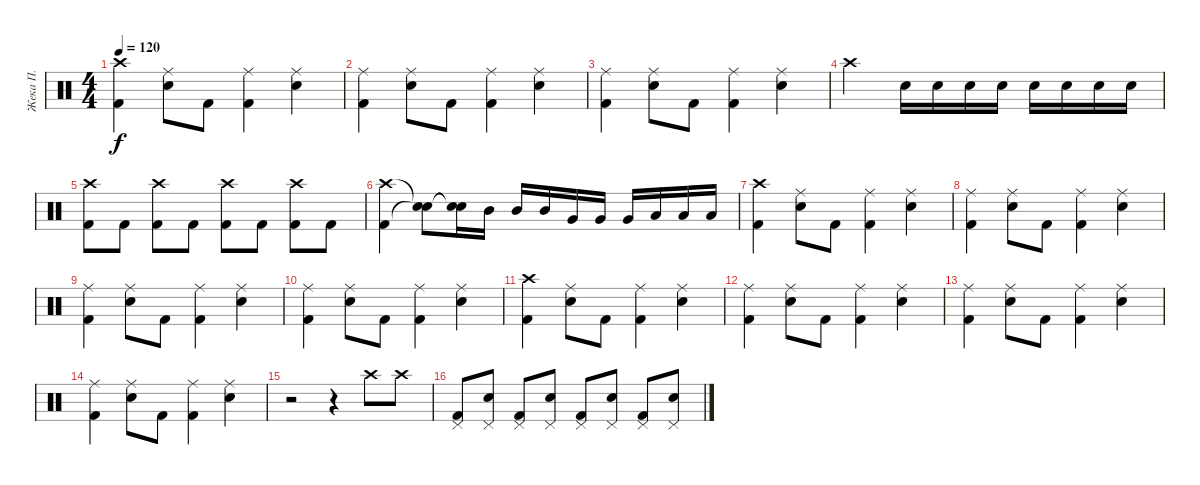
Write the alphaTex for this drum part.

\track ("Жека П." "Жека П.") {instrument percussion}
\staff {score}
\articulation defaults
\ts (4 4)
\tempo 120
\clef neutral
\ks c
("Crash high (hit)" "Kick (hit) 2").4{dy f} ("Ride (middle)" "Snare (hit) 2").8 "Kick (hit) 2".8 ("Ride (middle)" "Kick (hit) 2").4 ("Ride (middle)" "Snare (hit) 2").4 |
("Ride (middle)" "Kick (hit) 2").4 ("Ride (middle)" "Snare (hit) 2").8 "Kick (hit) 2".8 ("Ride (middle)" "Kick (hit) 2").4 ("Ride (middle)" "Snare (hit) 2").4 |
("Ride (middle)" "Kick (hit) 2").4 ("Ride (middle)" "Snare (hit) 2").8 "Kick (hit) 2".8 ("Ride (middle)" "Kick (hit) 2").4 ("Ride (middle)" "Snare (hit) 2").4 |
"Crash high (hit)".2 "Snare (hit) 2".16 "Snare (hit) 2".16 "Snare (hit) 2".16 "Snare (hit) 2".16 "Snare (hit) 2".16 "Snare (hit) 2".16 "Snare (hit) 2".16 "Snare (hit) 2".16 |
("Crash high (hit)" "Kick (hit) 2").8 "Kick (hit) 2".8 ("Crash high (hit)" "Kick (hit) 2").8 "Kick (hit) 2".8 ("Crash high (hit)" "Kick (hit) 2").8 "Kick (hit) 2".8 ("Crash high (hit)" "Kick (hit) 2").8 "Kick (hit) 2".8 |
("Kick (hit) 2" "Crash high (hit)").4 ("Snare (hit)"{t} "Snare (hit)"{t}).8 ("Snare (hit)"{t} "Snare (hit)"{t}).16 "Mid Tom (hit)".16 "Mid Tom (hit)".16 "Mid Tom (hit)".16 "Very Low Tom (hit)".16 "Very Low Tom (hit)".16 "Very Low Tom (hit)".16 "Low Floor Tom (hit)".16 "Low Floor Tom (hit)".16 "Low Floor Tom (hit)".16 |
("Crash high (hit)" "Kick (hit) 2").4 ("Ride (middle)" "Snare (hit) 2").8 "Kick (hit) 2".8 ("Ride (middle)" "Kick (hit) 2").4 ("Ride (middle)" "Snare (hit) 2").4 |
("Ride (middle)" "Kick (hit) 2").4 ("Ride (middle)" "Snare (hit) 2").8 "Kick (hit) 2".8 ("Ride (middle)" "Kick (hit) 2").4 ("Ride (middle)" "Snare (hit) 2").4 |
("Ride (middle)" "Kick (hit) 2").4 ("Ride (middle)" "Snare (hit) 2").8 "Kick (hit) 2".8 ("Ride (middle)" "Kick (hit) 2").4 ("Ride (middle)" "Snare (hit) 2").4 |
("Ride (middle)" "Kick (hit) 2").4 ("Ride (middle)" "Snare (hit) 2").8 "Kick (hit) 2".8 ("Ride (middle)" "Kick (hit) 2").4 ("Ride (middle)" "Snare (hit) 2").4 |
("Crash high (hit)" "Kick (hit) 2").4 ("Ride (middle)" "Snare (hit) 2").8 "Kick (hit) 2".8 ("Ride (middle)" "Kick (hit) 2").4 ("Ride (middle)" "Snare (hit) 2").4 |
("Ride (middle)" "Kick (hit) 2").4 ("Ride (middle)" "Snare (hit) 2").8 "Kick (hit) 2".8 ("Ride (middle)" "Kick (hit) 2").4 ("Ride (middle)" "Snare (hit) 2").4 |
("Ride (middle)" "Kick (hit) 2").4 ("Ride (middle)" "Snare (hit) 2").8 "Kick (hit) 2".8 ("Ride (middle)" "Kick (hit) 2").4 ("Ride (middle)" "Snare (hit) 2").4 |
("Ride (middle)" "Kick (hit) 2").4 ("Ride (middle)" "Snare (hit) 2").8 "Kick (hit) 2".8 ("Ride (middle)" "Kick (hit) 2").4 ("Ride (middle)" "Snare (hit) 2").4 |
r.2 r.4 "Crash high (hit)".8 "Crash high (hit)".8 |
("Pedal Hi-Hat (hit)" "Kick (hit) 2").8 ("Pedal Hi-Hat (hit)" "Snare (hit) 2").8 ("Pedal Hi-Hat (hit)" "Kick (hit) 2").8 ("Pedal Hi-Hat (hit)" "Snare (hit) 2").8 ("Pedal Hi-Hat (hit)" "Kick (hit) 2").8 ("Pedal Hi-Hat (hit)" "Snare (hit) 2").8 ("Pedal Hi-Hat (hit)" "Kick (hit) 2").8 ("Pedal Hi-Hat (hit)" "Snare (hit) 2").8
